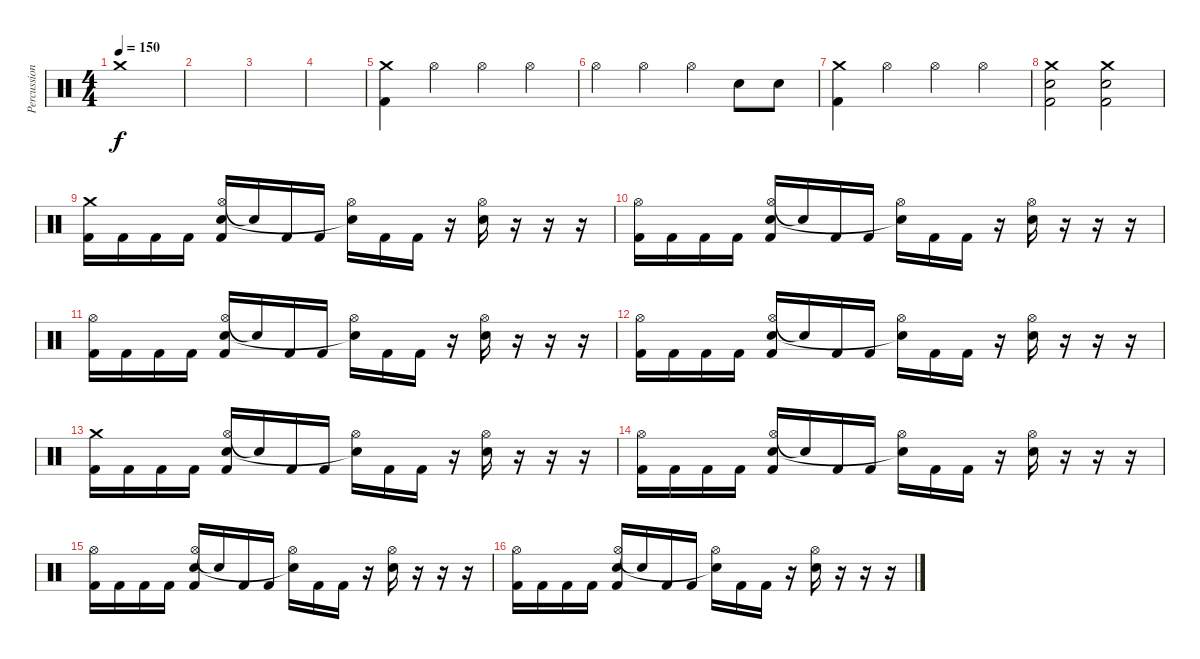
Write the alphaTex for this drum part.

\track ("Percussion" "Percussion") {instrument percussion}
\staff {score}
\articulation defaults
\ts (4 4)
\tempo 150
\clef neutral
\ks c "Crash medium (hit)".1{dy f}
|
|
|
|
("Crash medium (hit)" "Kick (hit) 2").4 "Hi-Hat (open)".4 "Hi-Hat (open)".4 "Hi-Hat (open)".4 |
"Hi-Hat (open)".4 "Hi-Hat (open)".4 "Hi-Hat (open)".4 "Electric Snare (hit)".8 "Electric Snare (hit)".8 |
("Crash medium (hit)" "Kick (hit) 2").4 "Hi-Hat (open)".4 "Hi-Hat (open)".4 "Hi-Hat (open)".4 |
("Crash medium (hit)" "Electric Snare (hit)" "Kick (hit) 2").2 ("Crash medium (hit)" "Electric Snare (hit)" "Kick (hit) 2").2 |
("Crash medium (hit)" "Kick (hit) 2").16 "Kick (hit) 2".16 "Kick (hit) 2".16 "Kick (hit) 2".16 ("Hi-Hat (open)" "Electric Snare (hit)" "Kick (hit) 2").16 "Snare (hit)"{t}.16 "Kick (hit) 2".16 "Kick (hit) 2".16 ("Hi-Hat (open)" "Snare (hit)"{t}).16 "Kick (hit) 2".16 "Kick (hit) 2".16 r.16 ("Hi-Hat (open)" "Electric Snare (hit)").16 r.16 r.16 r.16 |
("Hi-Hat (open)" "Kick (hit) 2").16 "Kick (hit) 2".16 "Kick (hit) 2".16 "Kick (hit) 2".16 ("Hi-Hat (open)" "Electric Snare (hit)" "Kick (hit) 2").16 "Snare (hit)"{t}.16 "Kick (hit) 2".16 "Kick (hit) 2".16 ("Hi-Hat (open)" "Snare (hit)"{t}).16 "Kick (hit) 2".16 "Kick (hit) 2".16 r.16 ("Hi-Hat (open)" "Electric Snare (hit)").16 r.16 r.16 r.16 |
("Hi-Hat (open)" "Kick (hit) 2").16 "Kick (hit) 2".16 "Kick (hit) 2".16 "Kick (hit) 2".16 ("Hi-Hat (open)" "Electric Snare (hit)" "Kick (hit) 2").16 "Snare (hit)"{t}.16 "Kick (hit) 2".16 "Kick (hit) 2".16 ("Hi-Hat (open)" "Snare (hit)"{t}).16 "Kick (hit) 2".16 "Kick (hit) 2".16 r.16 ("Hi-Hat (open)" "Electric Snare (hit)").16 r.16 r.16 r.16 |
("Hi-Hat (open)" "Kick (hit) 2").16 "Kick (hit) 2".16 "Kick (hit) 2".16 "Kick (hit) 2".16 ("Hi-Hat (open)" "Electric Snare (hit)" "Kick (hit) 2").16 "Snare (hit)"{t}.16 "Kick (hit) 2".16 "Kick (hit) 2".16 ("Hi-Hat (open)" "Snare (hit)"{t}).16 "Kick (hit) 2".16 "Kick (hit) 2".16 r.16 ("Hi-Hat (open)" "Electric Snare (hit)").16 r.16 r.16 r.16 |
("Crash medium (hit)" "Kick (hit) 2").16 "Kick (hit) 2".16 "Kick (hit) 2".16 "Kick (hit) 2".16 ("Hi-Hat (open)" "Electric Snare (hit)" "Kick (hit) 2").16 "Snare (hit)"{t}.16 "Kick (hit) 2".16 "Kick (hit) 2".16 ("Hi-Hat (open)" "Snare (hit)"{t}).16 "Kick (hit) 2".16 "Kick (hit) 2".16 r.16 ("Hi-Hat (open)" "Electric Snare (hit)").16 r.16 r.16 r.16 |
("Hi-Hat (open)" "Kick (hit) 2").16 "Kick (hit) 2".16 "Kick (hit) 2".16 "Kick (hit) 2".16 ("Hi-Hat (open)" "Electric Snare (hit)" "Kick (hit) 2").16 "Snare (hit)"{t}.16 "Kick (hit) 2".16 "Kick (hit) 2".16 ("Hi-Hat (open)" "Snare (hit)"{t}).16 "Kick (hit) 2".16 "Kick (hit) 2".16 r.16 ("Hi-Hat (open)" "Electric Snare (hit)").16 r.16 r.16 r.16 |
("Hi-Hat (open)" "Kick (hit) 2").16 "Kick (hit) 2".16 "Kick (hit) 2".16 "Kick (hit) 2".16 ("Hi-Hat (open)" "Electric Snare (hit)" "Kick (hit) 2").16 "Snare (hit)"{t}.16 "Kick (hit) 2".16 "Kick (hit) 2".16 ("Hi-Hat (open)" "Snare (hit)"{t}).16 "Kick (hit) 2".16 "Kick (hit) 2".16 r.16 ("Hi-Hat (open)" "Electric Snare (hit)").16 r.16 r.16 r.16 |
("Hi-Hat (open)" "Kick (hit) 2").16 "Kick (hit) 2".16 "Kick (hit) 2".16 "Kick (hit) 2".16 ("Hi-Hat (open)" "Electric Snare (hit)" "Kick (hit) 2").16 "Snare (hit)"{t}.16 "Kick (hit) 2".16 "Kick (hit) 2".16 ("Hi-Hat (open)" "Snare (hit)"{t}).16 "Kick (hit) 2".16 "Kick (hit) 2".16 r.16 ("Hi-Hat (open)" "Electric Snare (hit)").16 r.16 r.16 r.16
